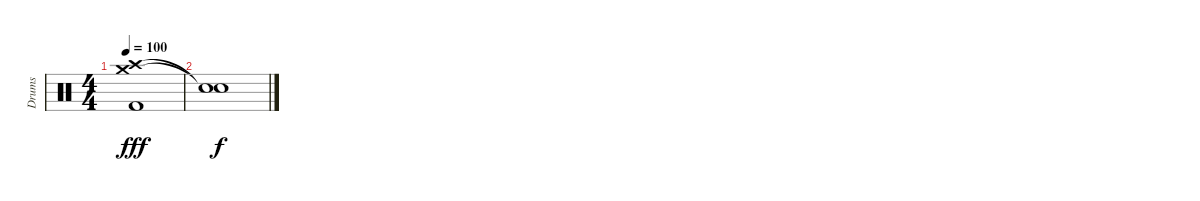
\track ("Drums" "Drums") {instrument percussion}
\staff {score}
\articulation defaults
\ts (4 4)
\tempo 100
\clef neutral
\ks c
("Crash medium (hit)" "Crash high (hit)" "Kick (hit) 2").1{dy fff} |
("Snare (hit)"{t} "Snare (hit)"{t}).1{dy f}
